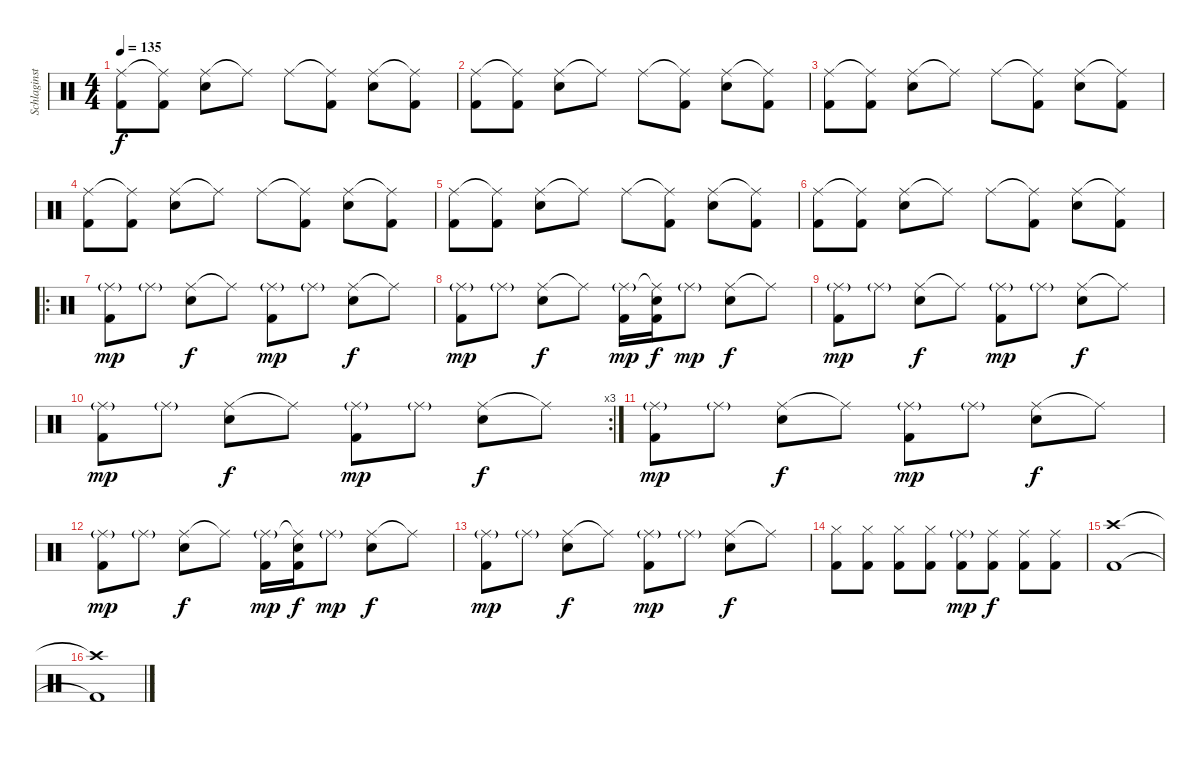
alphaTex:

\track ("Schlaginstrumente - Auswahl" "Schlaginst") {instrument percussion}
\staff {score}
\articulation defaults
\ts (4 4)
\tempo 135
\clef neutral
\ks c
("Ride (middle)" "Kick (hit) 2").8{dy f} ("Ride (middle)"{t} "Kick (hit) 2").8 ("Ride (middle)" "Snare (hit) 2").8 "Ride (middle)"{t}.8 "Ride (middle)".8 ("Ride (middle)"{t} "Kick (hit) 2").8 ("Ride (middle)" "Snare (hit) 2").8 ("Ride (middle)"{t} "Kick (hit) 2").8 |
("Ride (middle)" "Kick (hit) 2").8 ("Ride (middle)"{t} "Kick (hit) 2").8 ("Ride (middle)" "Snare (hit) 2").8 "Ride (middle)"{t}.8 "Ride (middle)".8 ("Ride (middle)"{t} "Kick (hit) 2").8 ("Ride (middle)" "Snare (hit) 2").8 ("Ride (middle)"{t} "Kick (hit) 2").8 |
("Ride (middle)" "Kick (hit) 2").8 ("Ride (middle)"{t} "Kick (hit) 2").8 ("Ride (middle)" "Snare (hit) 2").8 "Ride (middle)"{t}.8 "Ride (middle)".8 ("Ride (middle)"{t} "Kick (hit) 2").8 ("Ride (middle)" "Snare (hit) 2").8 ("Ride (middle)"{t} "Kick (hit) 2").8 |
("Ride (middle)" "Kick (hit) 2").8 ("Ride (middle)"{t} "Kick (hit) 2").8 ("Ride (middle)" "Snare (hit) 2").8 "Ride (middle)"{t}.8 "Ride (middle)".8 ("Ride (middle)"{t} "Kick (hit) 2").8 ("Ride (middle)" "Snare (hit) 2").8 ("Ride (middle)"{t} "Kick (hit) 2").8 |
("Ride (middle)" "Kick (hit) 2").8 ("Ride (middle)"{t} "Kick (hit) 2").8 ("Ride (middle)" "Snare (hit) 2").8 "Ride (middle)"{t}.8 "Ride (middle)".8 ("Ride (middle)"{t} "Kick (hit) 2").8 ("Ride (middle)" "Snare (hit) 2").8 ("Ride (middle)"{t} "Kick (hit) 2").8 |
("Ride (middle)" "Kick (hit) 2").8 ("Ride (middle)"{t} "Kick (hit) 2").8 ("Ride (middle)" "Snare (hit) 2").8 "Ride (middle)"{t}.8 "Ride (middle)".8 ("Ride (middle)"{t} "Kick (hit) 2").8 ("Ride (middle)" "Snare (hit) 2").8 ("Ride (middle)"{t} "Kick (hit) 2").8 |
\ro
("Ride (middle)"{g} "Kick (hit) 2").8{dy mp} "Ride (middle)"{g}.8 ("Ride (middle)" "Snare (hit) 2").8{dy f} "Ride (middle)"{t}.8 ("Ride (middle)"{g} "Kick (hit) 2").8{dy mp} "Ride (middle)"{g}.8 ("Ride (middle)" "Snare (hit) 2").8{dy f} "Ride (middle)"{t}.8 |
("Ride (middle)"{g} "Kick (hit) 2").8{dy mp} "Ride (middle)"{g}.8 ("Ride (middle)" "Snare (hit) 2").8{dy f} "Ride (middle)"{t}.8 ("Ride (middle)"{g} "Kick (hit) 2").16{dy mp} ("Ride (middle)"{t} "Snare (hit) 2" "Kick (hit) 2").16{dy f} "Ride (middle)"{g}.8{dy mp} ("Ride (middle)" "Snare (hit) 2").8{dy f} "Ride (middle)"{t}.8 |
("Ride (middle)"{g} "Kick (hit) 2").8{dy mp} "Ride (middle)"{g}.8 ("Ride (middle)" "Snare (hit) 2").8{dy f} "Ride (middle)"{t}.8 ("Ride (middle)"{g} "Kick (hit) 2").8{dy mp} "Ride (middle)"{g}.8 ("Ride (middle)" "Snare (hit) 2").8{dy f} "Ride (middle)"{t}.8 |
\rc 3
("Ride (middle)"{g} "Kick (hit) 2").8{dy mp} "Ride (middle)"{g}.8 ("Ride (middle)" "Snare (hit) 2").8{dy f} "Ride (middle)"{t}.8 ("Ride (middle)"{g} "Kick (hit) 2").8{dy mp} "Ride (middle)"{g}.8 ("Ride (middle)" "Snare (hit) 2").8{dy f} "Ride (middle)"{t}.8 |
("Ride (middle)"{g} "Kick (hit) 2").8{dy mp} "Ride (middle)"{g}.8 ("Ride (middle)" "Snare (hit) 2").8{dy f} "Ride (middle)"{t}.8 ("Ride (middle)"{g} "Kick (hit) 2").8{dy mp} "Ride (middle)"{g}.8 ("Ride (middle)" "Snare (hit) 2").8{dy f} "Ride (middle)"{t}.8 |
("Ride (middle)"{g} "Kick (hit) 2").8{dy mp} "Ride (middle)"{g}.8 ("Ride (middle)" "Snare (hit) 2").8{dy f} "Ride (middle)"{t}.8 ("Ride (middle)"{g} "Kick (hit) 2").16{dy mp} ("Ride (middle)"{t} "Snare (hit) 2" "Kick (hit) 2").16{dy f} "Ride (middle)"{g}.8{dy mp} ("Ride (middle)" "Snare (hit) 2").8{dy f} "Ride (middle)"{t}.8 |
("Ride (middle)"{g} "Kick (hit) 2").8{dy mp} "Ride (middle)"{g}.8 ("Ride (middle)" "Snare (hit) 2").8{dy f} "Ride (middle)"{t}.8 ("Ride (middle)"{g} "Kick (hit) 2").8{dy mp} "Ride (middle)"{g}.8 ("Ride (middle)" "Snare (hit) 2").8{dy f} "Ride (middle)"{t}.8 |
("Hi-Hat (closed)" "Kick (hit) 2").8 ("Hi-Hat (closed)" "Kick (hit) 2").8 ("Hi-Hat (closed)" "Kick (hit) 2").8 ("Hi-Hat (closed)" "Kick (hit) 2").8 ("Ride (middle)"{g} "Kick (hit) 2").8{dy mp} ("Ride (middle)" "Kick (hit) 2").8{dy f} ("Ride (middle)" "Kick (hit) 2").8 ("Ride (middle)" "Kick (hit) 2").8 |
("Crash high (hit)" "Kick (hit) 2").1 |
("Crash high (hit)"{t} "Kick (hit) 2"{t}).1
